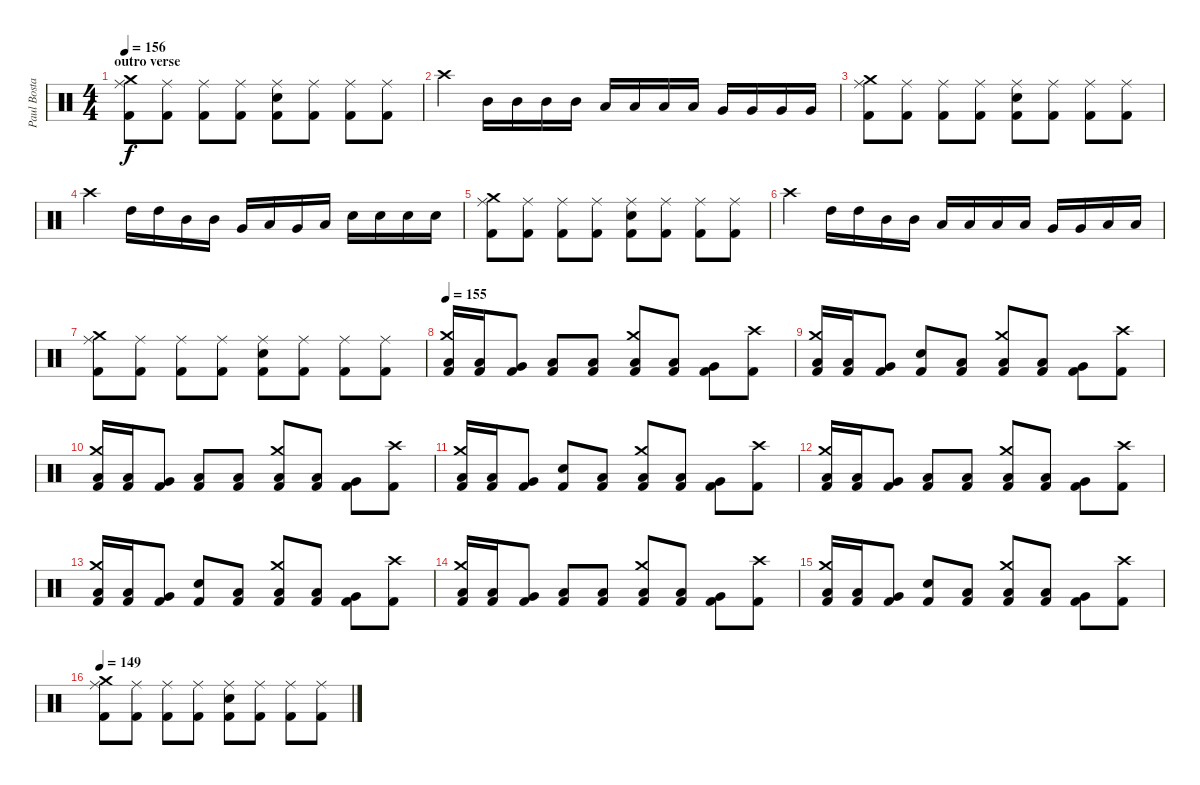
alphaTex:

\track ("Paul Bostaph" "Paul Bosta") {instrument percussion}
\staff {score}
\articulation defaults
\ts (4 4)
\section ("" "outro verse")
\tempo 156
\clef neutral
\ks c
("Kick (hit) 2" "Crash medium (hit)" "Ride (middle)").8{dy f} ("Kick (hit) 2" "Ride (middle)").8 ("Kick (hit) 2" "Ride (middle)").8 ("Kick (hit) 2" "Ride (middle)").8 ("Kick (hit) 2" "Snare (hit) 2" "Ride (middle)").8 ("Kick (hit) 2" "Ride (middle)").8 ("Kick (hit) 2" "Ride (middle)").8 ("Kick (hit) 2" "Ride (middle)").8 |
"Crash high (hit)".4 "Mid Tom (hit)".16 "Mid Tom (hit)".16 "Mid Tom (hit)".16 "Mid Tom (hit)".16 "Low Tom (hit)".16 "Low Tom (hit)".16 "Low Tom (hit)".16 "Low Tom (hit)".16 "Very Low Tom (hit)".16 "Very Low Tom (hit)".16 "Very Low Tom (hit)".16 "Very Low Tom (hit)".16 |
("Kick (hit) 2" "Crash medium (hit)" "Ride (middle)").8 ("Kick (hit) 2" "Ride (middle)").8 ("Kick (hit) 2" "Ride (middle)").8 ("Kick (hit) 2" "Ride (middle)").8 ("Kick (hit) 2" "Snare (hit) 2" "Ride (middle)").8 ("Kick (hit) 2" "Ride (middle)").8 ("Kick (hit) 2" "Ride (middle)").8 ("Kick (hit) 2" "Ride (middle)").8 |
"Crash high (hit)".4 "High Tom (hit)".16 "High Tom (hit)".16 "Mid Tom (hit)".16 "Mid Tom (hit)".16 "Very Low Tom (hit)".16 "Low Tom (hit)".16 "Very Low Tom (hit)".16 "Low Tom (hit)".16 "Snare (hit) 2".16 "Snare (hit) 2".16 "Snare (hit) 2".16 "Snare (hit) 2".16 |
("Kick (hit) 2" "Crash medium (hit)" "Ride (middle)").8 ("Kick (hit) 2" "Ride (middle)").8 ("Kick (hit) 2" "Ride (middle)").8 ("Kick (hit) 2" "Ride (middle)").8 ("Kick (hit) 2" "Snare (hit) 2" "Ride (middle)").8 ("Kick (hit) 2" "Ride (middle)").8 ("Kick (hit) 2" "Ride (middle)").8 ("Kick (hit) 2" "Ride (middle)").8 |
"Crash high (hit)".4 "High Tom (hit)".16 "High Tom (hit)".16 "Mid Tom (hit)".16 "Mid Tom (hit)".16 "Low Tom (hit)".16 "Low Tom (hit)".16 "Low Tom (hit)".16 "Low Tom (hit)".16 "Very Low Tom (hit)".16 "Very Low Tom (hit)".16 "Low Floor Tom (hit)".16 "Low Floor Tom (hit)".16 |
("Kick (hit) 2" "Crash medium (hit)" "Ride (middle)").8 ("Kick (hit) 2" "Ride (middle)").8 ("Kick (hit) 2" "Ride (middle)").8 ("Kick (hit) 2" "Ride (middle)").8 ("Kick (hit) 2" "Snare (hit) 2" "Ride (middle)").8 ("Kick (hit) 2" "Ride (middle)").8 ("Kick (hit) 2" "Ride (middle)").8 ("Kick (hit) 2" "Ride (middle)").8 |
\tempo 155
("Crash medium (hit)" "Low Tom (hit)" "Kick (hit) 2").16 ("Low Tom (hit)" "Kick (hit) 2").16 ("Very Low Tom (hit)" "Kick (hit) 2").8 ("Low Tom (hit)" "Kick (hit) 2").8 ("Low Tom (hit)" "Kick (hit) 2").8 ("Crash medium (hit)" "Low Tom (hit)" "Kick (hit) 2").8 ("Low Tom (hit)" "Kick (hit) 2").8 ("Very Low Tom (hit)" "Kick (hit) 2").8 ("Crash high (hit)" "Kick (hit) 2").8 |
("Crash medium (hit)" "Low Tom (hit)" "Kick (hit) 2").16 ("Low Tom (hit)" "Kick (hit) 2").16 ("Very Low Tom (hit)" "Kick (hit) 2").8 ("Snare (hit) 2" "Kick (hit) 2").8 ("Low Tom (hit)" "Kick (hit) 2").8 ("Crash medium (hit)" "Low Tom (hit)" "Kick (hit) 2").8 ("Low Tom (hit)" "Kick (hit) 2").8 ("Very Low Tom (hit)" "Kick (hit) 2").8 ("Crash high (hit)" "Kick (hit) 2").8 |
("Crash medium (hit)" "Low Tom (hit)" "Kick (hit) 2").16 ("Low Tom (hit)" "Kick (hit) 2").16 ("Very Low Tom (hit)" "Kick (hit) 2").8 ("Low Tom (hit)" "Kick (hit) 2").8 ("Low Tom (hit)" "Kick (hit) 2").8 ("Crash medium (hit)" "Low Tom (hit)" "Kick (hit) 2").8 ("Low Tom (hit)" "Kick (hit) 2").8 ("Very Low Tom (hit)" "Kick (hit) 2").8 ("Crash high (hit)" "Kick (hit) 2").8 |
("Crash medium (hit)" "Low Tom (hit)" "Kick (hit) 2").16 ("Low Tom (hit)" "Kick (hit) 2").16 ("Very Low Tom (hit)" "Kick (hit) 2").8 ("Snare (hit) 2" "Kick (hit) 2").8 ("Low Tom (hit)" "Kick (hit) 2").8 ("Crash medium (hit)" "Low Tom (hit)" "Kick (hit) 2").8 ("Low Tom (hit)" "Kick (hit) 2").8 ("Very Low Tom (hit)" "Kick (hit) 2").8 ("Crash high (hit)" "Kick (hit) 2").8 |
("Crash medium (hit)" "Low Tom (hit)" "Kick (hit) 2").16 ("Low Tom (hit)" "Kick (hit) 2").16 ("Very Low Tom (hit)" "Kick (hit) 2").8 ("Low Tom (hit)" "Kick (hit) 2").8 ("Low Tom (hit)" "Kick (hit) 2").8 ("Crash medium (hit)" "Low Tom (hit)" "Kick (hit) 2").8 ("Low Tom (hit)" "Kick (hit) 2").8 ("Very Low Tom (hit)" "Kick (hit) 2").8 ("Crash high (hit)" "Kick (hit) 2").8 |
("Crash medium (hit)" "Low Tom (hit)" "Kick (hit) 2").16 ("Low Tom (hit)" "Kick (hit) 2").16 ("Very Low Tom (hit)" "Kick (hit) 2").8 ("Snare (hit) 2" "Kick (hit) 2").8 ("Low Tom (hit)" "Kick (hit) 2").8 ("Crash medium (hit)" "Low Tom (hit)" "Kick (hit) 2").8 ("Low Tom (hit)" "Kick (hit) 2").8 ("Very Low Tom (hit)" "Kick (hit) 2").8 ("Crash high (hit)" "Kick (hit) 2").8 |
("Crash medium (hit)" "Low Tom (hit)" "Kick (hit) 2").16 ("Low Tom (hit)" "Kick (hit) 2").16 ("Very Low Tom (hit)" "Kick (hit) 2").8 ("Low Tom (hit)" "Kick (hit) 2").8 ("Low Tom (hit)" "Kick (hit) 2").8 ("Crash medium (hit)" "Low Tom (hit)" "Kick (hit) 2").8 ("Low Tom (hit)" "Kick (hit) 2").8 ("Very Low Tom (hit)" "Kick (hit) 2").8 ("Crash high (hit)" "Kick (hit) 2").8 |
("Crash medium (hit)" "Low Tom (hit)" "Kick (hit) 2").16 ("Low Tom (hit)" "Kick (hit) 2").16 ("Very Low Tom (hit)" "Kick (hit) 2").8 ("Snare (hit) 2" "Kick (hit) 2").8 ("Low Tom (hit)" "Kick (hit) 2").8 ("Crash medium (hit)" "Low Tom (hit)" "Kick (hit) 2").8 ("Low Tom (hit)" "Kick (hit) 2").8 ("Very Low Tom (hit)" "Kick (hit) 2").8 ("Crash high (hit)" "Kick (hit) 2").8 |
\tempo 149
("Crash medium (hit)" "Ride (middle)" "Kick (hit) 2").8 ("Ride (middle)" "Kick (hit) 2").8 ("Ride (middle)" "Kick (hit) 2").8 ("Ride (middle)" "Kick (hit) 2").8 ("Ride (middle)" "Snare (hit) 2" "Kick (hit) 2").8 ("Ride (middle)" "Kick (hit) 2").8 ("Ride (middle)" "Kick (hit) 2").8 ("Ride (middle)" "Kick (hit) 2").8
